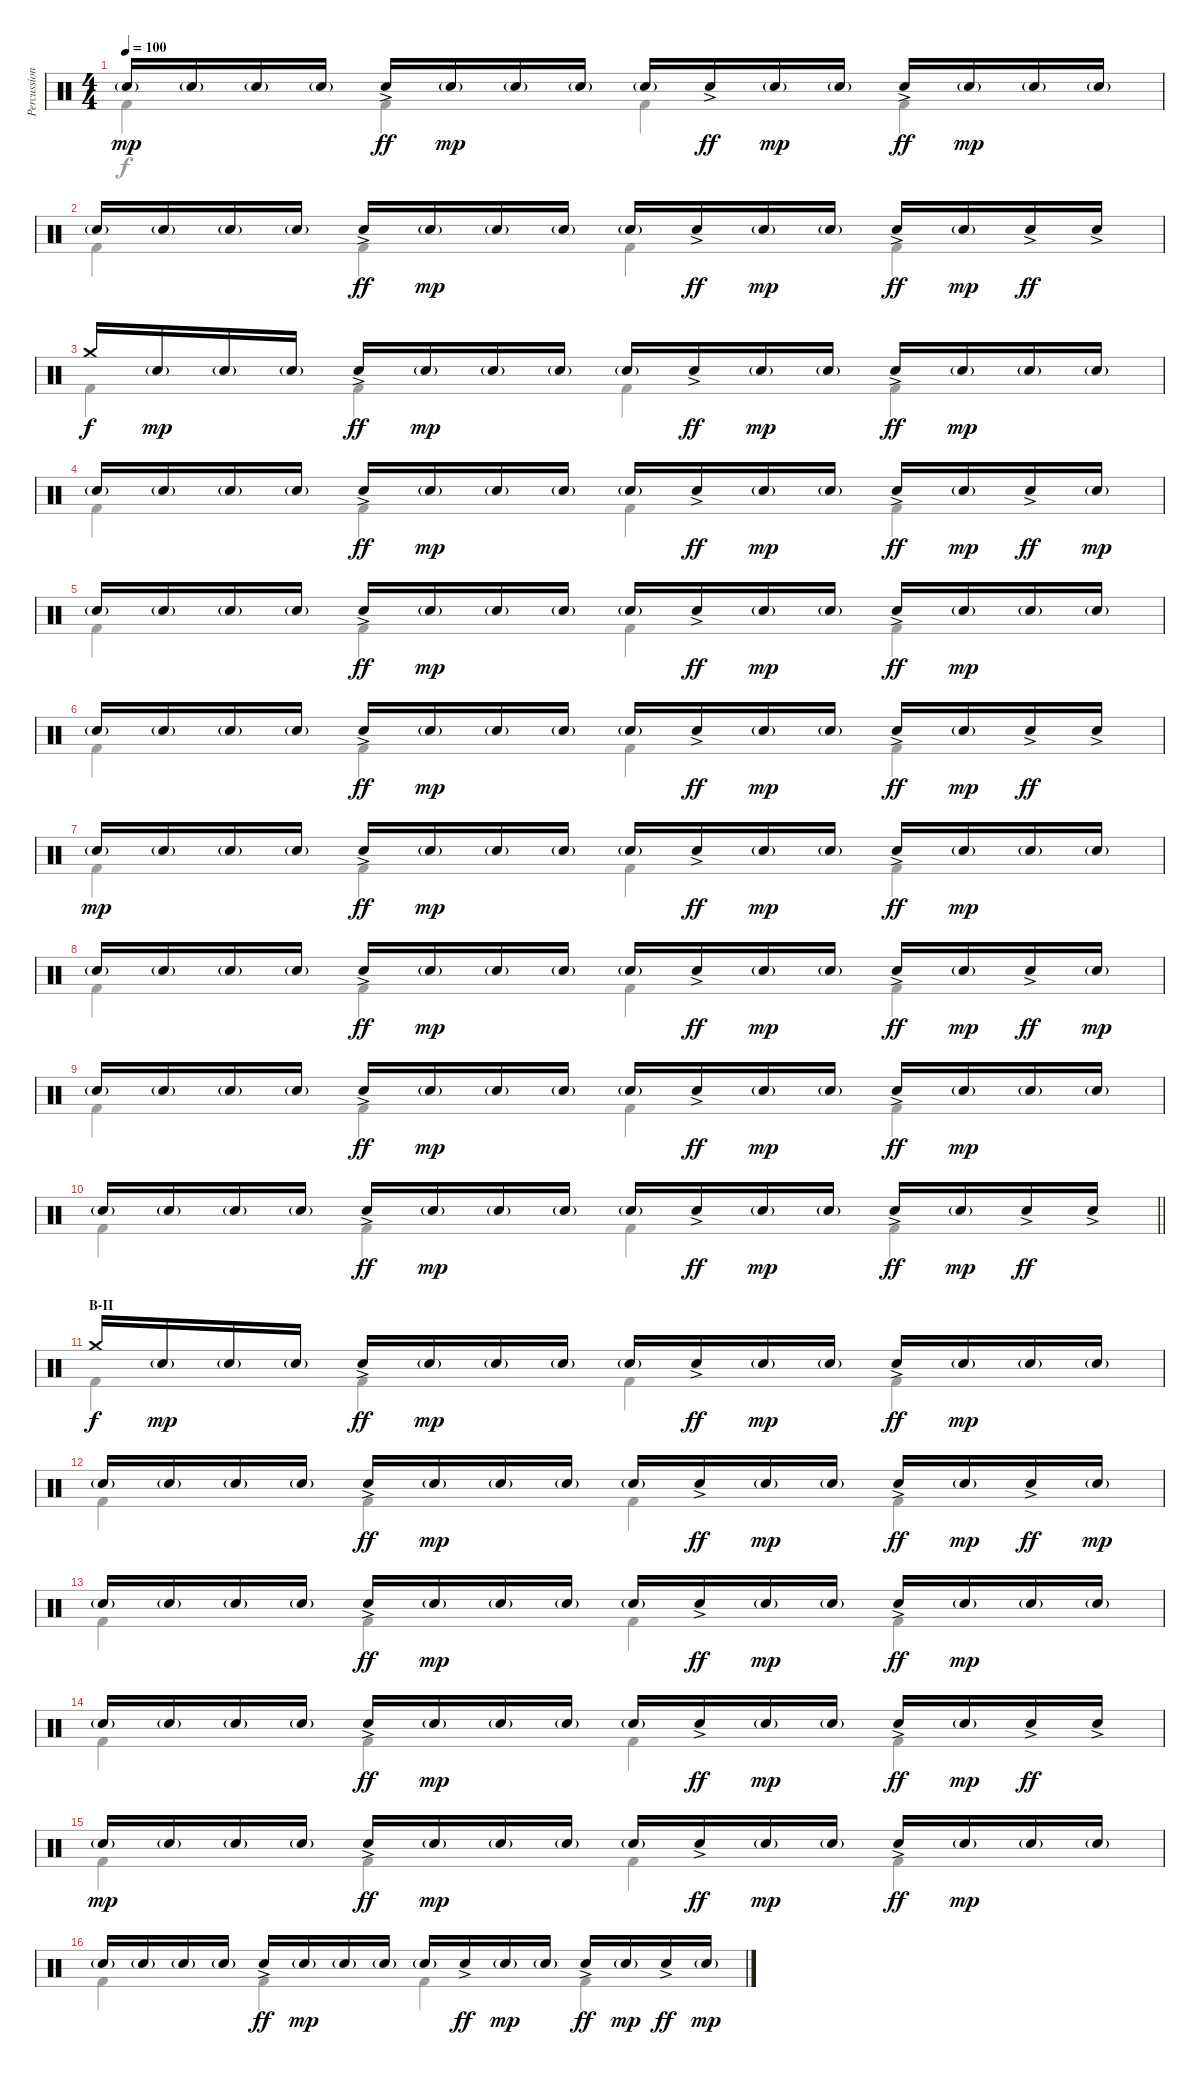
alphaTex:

\track ("Percussion" "Percussion") {instrument percussion}
\staff {score}
\articulation defaults
\voice
\ts (4 4)
\tempo 100
\clef neutral
\ks c "Snare (hit) 2"{g}.16{dy mp} "Snare (hit) 2"{g}.16 "Snare (hit) 2"{g}.16 "Snare (hit) 2"{g}.16 "Snare (hit) 2"{ac}.16{dy ff} "Snare (hit) 2"{g}.16{dy mp} "Snare (hit) 2"{g}.16 "Snare (hit) 2"{g}.16 "Snare (hit) 2"{g}.16 "Snare (hit) 2"{ac}.16{dy ff} "Snare (hit) 2"{g}.16{dy mp} "Snare (hit) 2"{g}.16 "Snare (hit) 2"{ac}.16{dy ff} "Snare (hit) 2"{g}.16{dy mp} "Snare (hit) 2"{g}.16 "Snare (hit) 2"{g}.16
|
"Snare (hit) 2"{g}.16 "Snare (hit) 2"{g}.16 "Snare (hit) 2"{g}.16 "Snare (hit) 2"{g}.16 "Snare (hit) 2"{ac}.16{dy ff} "Snare (hit) 2"{g}.16{dy mp} "Snare (hit) 2"{g}.16 "Snare (hit) 2"{g}.16 "Snare (hit) 2"{g}.16 "Snare (hit) 2"{ac}.16{dy ff} "Snare (hit) 2"{g}.16{dy mp} "Snare (hit) 2"{g}.16 "Snare (hit) 2"{ac}.16{dy ff} "Snare (hit) 2"{g}.16{dy mp} "Snare (hit) 2"{ac}.16{dy ff} "Snare (hit) 2"{ac}.16 |
"Crash medium (hit)".16{dy f} "Snare (hit) 2"{g}.16{dy mp} "Snare (hit) 2"{g}.16 "Snare (hit) 2"{g}.16 "Snare (hit) 2"{ac}.16{dy ff} "Snare (hit) 2"{g}.16{dy mp} "Snare (hit) 2"{g}.16 "Snare (hit) 2"{g}.16 "Snare (hit) 2"{g}.16 "Snare (hit) 2"{ac}.16{dy ff} "Snare (hit) 2"{g}.16{dy mp} "Snare (hit) 2"{g}.16 "Snare (hit) 2"{ac}.16{dy ff} "Snare (hit) 2"{g}.16{dy mp} "Snare (hit) 2"{g}.16 "Snare (hit) 2"{g}.16 |
"Snare (hit) 2"{g}.16 "Snare (hit) 2"{g}.16 "Snare (hit) 2"{g}.16 "Snare (hit) 2"{g}.16 "Snare (hit) 2"{ac}.16{dy ff} "Snare (hit) 2"{g}.16{dy mp} "Snare (hit) 2"{g}.16 "Snare (hit) 2"{g}.16 "Snare (hit) 2"{g}.16 "Snare (hit) 2"{ac}.16{dy ff} "Snare (hit) 2"{g}.16{dy mp} "Snare (hit) 2"{g}.16 "Snare (hit) 2"{ac}.16{dy ff} "Snare (hit) 2"{g}.16{dy mp} "Snare (hit) 2"{ac}.16{dy ff} "Snare (hit) 2"{g}.16{dy mp} |
"Snare (hit) 2"{g}.16 "Snare (hit) 2"{g}.16 "Snare (hit) 2"{g}.16 "Snare (hit) 2"{g}.16 "Snare (hit) 2"{ac}.16{dy ff} "Snare (hit) 2"{g}.16{dy mp} "Snare (hit) 2"{g}.16 "Snare (hit) 2"{g}.16 "Snare (hit) 2"{g}.16 "Snare (hit) 2"{ac}.16{dy ff} "Snare (hit) 2"{g}.16{dy mp} "Snare (hit) 2"{g}.16 "Snare (hit) 2"{ac}.16{dy ff} "Snare (hit) 2"{g}.16{dy mp} "Snare (hit) 2"{g}.16 "Snare (hit) 2"{g}.16 |
"Snare (hit) 2"{g}.16 "Snare (hit) 2"{g}.16 "Snare (hit) 2"{g}.16 "Snare (hit) 2"{g}.16 "Snare (hit) 2"{ac}.16{dy ff} "Snare (hit) 2"{g}.16{dy mp} "Snare (hit) 2"{g}.16 "Snare (hit) 2"{g}.16 "Snare (hit) 2"{g}.16 "Snare (hit) 2"{ac}.16{dy ff} "Snare (hit) 2"{g}.16{dy mp} "Snare (hit) 2"{g}.16 "Snare (hit) 2"{ac}.16{dy ff} "Snare (hit) 2"{g}.16{dy mp} "Snare (hit) 2"{ac}.16{dy ff} "Snare (hit) 2"{ac}.16 |
"Snare (hit) 2"{g}.16{dy mp} "Snare (hit) 2"{g}.16 "Snare (hit) 2"{g}.16 "Snare (hit) 2"{g}.16 "Snare (hit) 2"{ac}.16{dy ff} "Snare (hit) 2"{g}.16{dy mp} "Snare (hit) 2"{g}.16 "Snare (hit) 2"{g}.16 "Snare (hit) 2"{g}.16 "Snare (hit) 2"{ac}.16{dy ff} "Snare (hit) 2"{g}.16{dy mp} "Snare (hit) 2"{g}.16 "Snare (hit) 2"{ac}.16{dy ff} "Snare (hit) 2"{g}.16{dy mp} "Snare (hit) 2"{g}.16 "Snare (hit) 2"{g}.16 |
"Snare (hit) 2"{g}.16 "Snare (hit) 2"{g}.16 "Snare (hit) 2"{g}.16 "Snare (hit) 2"{g}.16 "Snare (hit) 2"{ac}.16{dy ff} "Snare (hit) 2"{g}.16{dy mp} "Snare (hit) 2"{g}.16 "Snare (hit) 2"{g}.16 "Snare (hit) 2"{g}.16 "Snare (hit) 2"{ac}.16{dy ff} "Snare (hit) 2"{g}.16{dy mp} "Snare (hit) 2"{g}.16 "Snare (hit) 2"{ac}.16{dy ff} "Snare (hit) 2"{g}.16{dy mp} "Snare (hit) 2"{ac}.16{dy ff} "Snare (hit) 2"{g}.16{dy mp} |
"Snare (hit) 2"{g}.16 "Snare (hit) 2"{g}.16 "Snare (hit) 2"{g}.16 "Snare (hit) 2"{g}.16 "Snare (hit) 2"{ac}.16{dy ff} "Snare (hit) 2"{g}.16{dy mp} "Snare (hit) 2"{g}.16 "Snare (hit) 2"{g}.16 "Snare (hit) 2"{g}.16 "Snare (hit) 2"{ac}.16{dy ff} "Snare (hit) 2"{g}.16{dy mp} "Snare (hit) 2"{g}.16 "Snare (hit) 2"{ac}.16{dy ff} "Snare (hit) 2"{g}.16{dy mp} "Snare (hit) 2"{g}.16 "Snare (hit) 2"{g}.16 |
\barLineRight lightlight "Snare (hit) 2"{g}.16 "Snare (hit) 2"{g}.16 "Snare (hit) 2"{g}.16 "Snare (hit) 2"{g}.16 "Snare (hit) 2"{ac}.16{dy ff} "Snare (hit) 2"{g}.16{dy mp} "Snare (hit) 2"{g}.16 "Snare (hit) 2"{g}.16 "Snare (hit) 2"{g}.16 "Snare (hit) 2"{ac}.16{dy ff} "Snare (hit) 2"{g}.16{dy mp} "Snare (hit) 2"{g}.16 "Snare (hit) 2"{ac}.16{dy ff} "Snare (hit) 2"{g}.16{dy mp} "Snare (hit) 2"{ac}.16{dy ff} "Snare (hit) 2"{ac}.16
|
\section ("" "B-II")
"Crash medium (hit)".16{dy f} "Snare (hit) 2"{g}.16{dy mp} "Snare (hit) 2"{g}.16 "Snare (hit) 2"{g}.16 "Snare (hit) 2"{ac}.16{dy ff} "Snare (hit) 2"{g}.16{dy mp} "Snare (hit) 2"{g}.16 "Snare (hit) 2"{g}.16 "Snare (hit) 2"{g}.16 "Snare (hit) 2"{ac}.16{dy ff} "Snare (hit) 2"{g}.16{dy mp} "Snare (hit) 2"{g}.16 "Snare (hit) 2"{ac}.16{dy ff} "Snare (hit) 2"{g}.16{dy mp} "Snare (hit) 2"{g}.16 "Snare (hit) 2"{g}.16 |
"Snare (hit) 2"{g}.16 "Snare (hit) 2"{g}.16 "Snare (hit) 2"{g}.16 "Snare (hit) 2"{g}.16 "Snare (hit) 2"{ac}.16{dy ff} "Snare (hit) 2"{g}.16{dy mp} "Snare (hit) 2"{g}.16 "Snare (hit) 2"{g}.16 "Snare (hit) 2"{g}.16 "Snare (hit) 2"{ac}.16{dy ff} "Snare (hit) 2"{g}.16{dy mp} "Snare (hit) 2"{g}.16 "Snare (hit) 2"{ac}.16{dy ff} "Snare (hit) 2"{g}.16{dy mp} "Snare (hit) 2"{ac}.16{dy ff} "Snare (hit) 2"{g}.16{dy mp} |
"Snare (hit) 2"{g}.16 "Snare (hit) 2"{g}.16 "Snare (hit) 2"{g}.16 "Snare (hit) 2"{g}.16 "Snare (hit) 2"{ac}.16{dy ff} "Snare (hit) 2"{g}.16{dy mp} "Snare (hit) 2"{g}.16 "Snare (hit) 2"{g}.16 "Snare (hit) 2"{g}.16 "Snare (hit) 2"{ac}.16{dy ff} "Snare (hit) 2"{g}.16{dy mp} "Snare (hit) 2"{g}.16 "Snare (hit) 2"{ac}.16{dy ff} "Snare (hit) 2"{g}.16{dy mp} "Snare (hit) 2"{g}.16 "Snare (hit) 2"{g}.16 |
"Snare (hit) 2"{g}.16 "Snare (hit) 2"{g}.16 "Snare (hit) 2"{g}.16 "Snare (hit) 2"{g}.16 "Snare (hit) 2"{ac}.16{dy ff} "Snare (hit) 2"{g}.16{dy mp} "Snare (hit) 2"{g}.16 "Snare (hit) 2"{g}.16 "Snare (hit) 2"{g}.16 "Snare (hit) 2"{ac}.16{dy ff} "Snare (hit) 2"{g}.16{dy mp} "Snare (hit) 2"{g}.16 "Snare (hit) 2"{ac}.16{dy ff} "Snare (hit) 2"{g}.16{dy mp} "Snare (hit) 2"{ac}.16{dy ff} "Snare (hit) 2"{ac}.16 |
"Snare (hit) 2"{g}.16{dy mp} "Snare (hit) 2"{g}.16 "Snare (hit) 2"{g}.16 "Snare (hit) 2"{g}.16 "Snare (hit) 2"{ac}.16{dy ff} "Snare (hit) 2"{g}.16{dy mp} "Snare (hit) 2"{g}.16 "Snare (hit) 2"{g}.16 "Snare (hit) 2"{g}.16 "Snare (hit) 2"{ac}.16{dy ff} "Snare (hit) 2"{g}.16{dy mp} "Snare (hit) 2"{g}.16 "Snare (hit) 2"{ac}.16{dy ff} "Snare (hit) 2"{g}.16{dy mp} "Snare (hit) 2"{g}.16 "Snare (hit) 2"{g}.16 |
"Snare (hit) 2"{g}.16 "Snare (hit) 2"{g}.16 "Snare (hit) 2"{g}.16 "Snare (hit) 2"{g}.16 "Snare (hit) 2"{ac}.16{dy ff} "Snare (hit) 2"{g}.16{dy mp} "Snare (hit) 2"{g}.16 "Snare (hit) 2"{g}.16 "Snare (hit) 2"{g}.16 "Snare (hit) 2"{ac}.16{dy ff} "Snare (hit) 2"{g}.16{dy mp} "Snare (hit) 2"{g}.16 "Snare (hit) 2"{ac}.16{dy ff} "Snare (hit) 2"{g}.16{dy mp} "Snare (hit) 2"{ac}.16{dy ff} "Snare (hit) 2"{g}.16{dy mp}
\voice
\clef neutral
\ottava regular
\simile none
\ks c "Kick (hit) 2".4{dy f} "Kick (hit) 2".4 "Kick (hit) 2".4 "Kick (hit) 2".4
|
"Kick (hit) 2".4 "Kick (hit) 2".4 "Kick (hit) 2".4 "Kick (hit) 2".4 |
"Kick (hit) 2".4 "Kick (hit) 2".4 "Kick (hit) 2".4 "Kick (hit) 2".4 |
"Kick (hit) 2".4 "Kick (hit) 2".4 "Kick (hit) 2".4 "Kick (hit) 2".4 |
"Kick (hit) 2".4 "Kick (hit) 2".4 "Kick (hit) 2".4 "Kick (hit) 2".4 |
"Kick (hit) 2".4 "Kick (hit) 2".4 "Kick (hit) 2".4 "Kick (hit) 2".4 |
"Kick (hit) 2".4 "Kick (hit) 2".4 "Kick (hit) 2".4 "Kick (hit) 2".4 |
"Kick (hit) 2".4 "Kick (hit) 2".4 "Kick (hit) 2".4 "Kick (hit) 2".4 |
"Kick (hit) 2".4 "Kick (hit) 2".4 "Kick (hit) 2".4 "Kick (hit) 2".4 |
\barLineRight lightlight "Kick (hit) 2".4 "Kick (hit) 2".4 "Kick (hit) 2".4 "Kick (hit) 2".4
|
"Kick (hit) 2".4 "Kick (hit) 2".4 "Kick (hit) 2".4 "Kick (hit) 2".4 |
"Kick (hit) 2".4 "Kick (hit) 2".4 "Kick (hit) 2".4 "Kick (hit) 2".4 |
"Kick (hit) 2".4 "Kick (hit) 2".4 "Kick (hit) 2".4 "Kick (hit) 2".4 |
"Kick (hit) 2".4 "Kick (hit) 2".4 "Kick (hit) 2".4 "Kick (hit) 2".4 |
"Kick (hit) 2".4 "Kick (hit) 2".4 "Kick (hit) 2".4 "Kick (hit) 2".4 |
"Kick (hit) 2".4 "Kick (hit) 2".4 "Kick (hit) 2".4 "Kick (hit) 2".4
